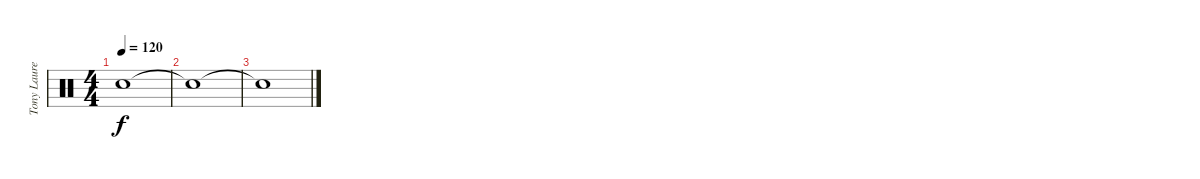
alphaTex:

\track ("Tony Laureano" "Tony Laure") {instrument percussion}
\staff {score}
\articulation defaults
\ts (4 4)
\tempo 120
\clef neutral
\ks c "Snare (hit)"{t}.1{dy f}
|
"Snare (hit)"{t}.1 |
"Snare (hit)"{t}.1
